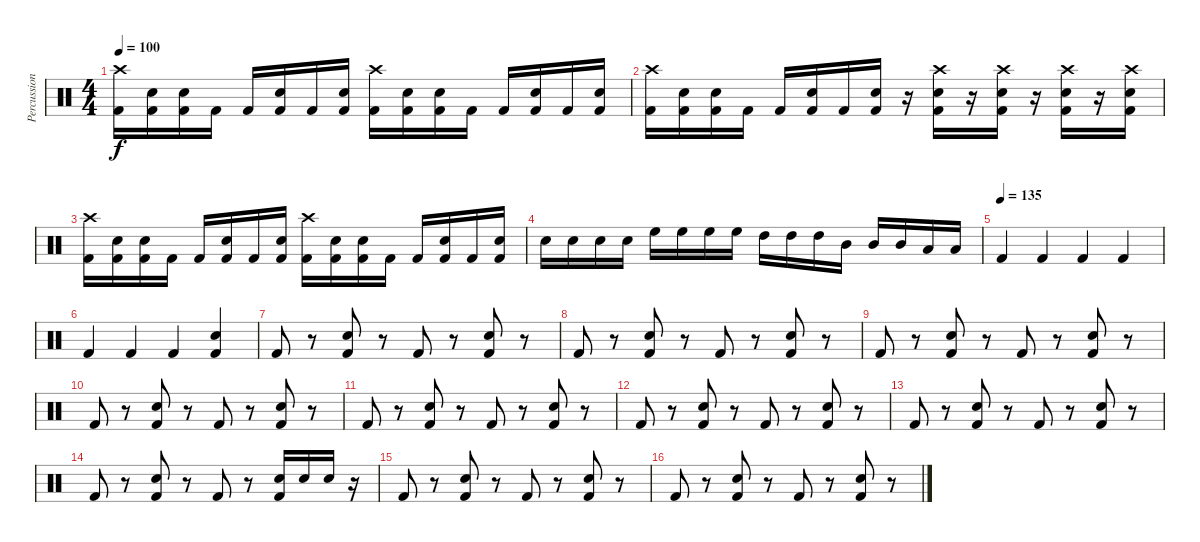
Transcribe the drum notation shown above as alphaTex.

\track ("Percussions" "Percussion") {instrument percussion}
\staff {score}
\articulation defaults
\ts (4 4)
\tempo 100
\clef neutral
\ks c
("Crash high (hit)" "Kick (hit) 2").16{dy f} ("Snare (hit) 2" "Kick (hit) 2").16 ("Snare (hit) 2" "Kick (hit) 2").16 "Kick (hit) 2".16 "Kick (hit) 2".16 ("Snare (hit) 2" "Kick (hit) 2").16 "Kick (hit) 2".16 ("Snare (hit) 2" "Kick (hit) 2").16 ("Crash high (hit)" "Kick (hit) 2").16 ("Snare (hit) 2" "Kick (hit) 2").16 ("Snare (hit) 2" "Kick (hit) 2").16 "Kick (hit) 2".16 "Kick (hit) 2".16 ("Snare (hit) 2" "Kick (hit) 2").16 "Kick (hit) 2".16 ("Snare (hit) 2" "Kick (hit) 2").16 |
("Crash high (hit)" "Kick (hit) 2").16 ("Snare (hit) 2" "Kick (hit) 2").16 ("Snare (hit) 2" "Kick (hit) 2").16 "Kick (hit) 2".16 "Kick (hit) 2".16 ("Snare (hit) 2" "Kick (hit) 2").16 "Kick (hit) 2".16 ("Snare (hit) 2" "Kick (hit) 2").16 r.16 ("Crash high (hit)" "Snare (hit) 2" "Kick (hit) 2").16 r.16 ("Crash high (hit)" "Snare (hit) 2" "Kick (hit) 2").16 r.16 ("Crash high (hit)" "Snare (hit) 2" "Kick (hit) 2").16 r.16 ("Crash high (hit)" "Snare (hit) 2" "Kick (hit) 2").16 |
("Crash high (hit)" "Kick (hit) 2").16 ("Snare (hit) 2" "Kick (hit) 2").16 ("Snare (hit) 2" "Kick (hit) 2").16 "Kick (hit) 2".16 "Kick (hit) 2".16 ("Snare (hit) 2" "Kick (hit) 2").16 "Kick (hit) 2".16 ("Snare (hit) 2" "Kick (hit) 2").16 ("Crash high (hit)" "Kick (hit) 2").16 ("Snare (hit) 2" "Kick (hit) 2").16 ("Snare (hit) 2" "Kick (hit) 2").16 "Kick (hit) 2".16 "Kick (hit) 2".16 ("Snare (hit) 2" "Kick (hit) 2").16 "Kick (hit) 2".16 ("Snare (hit) 2" "Kick (hit) 2").16 |
"Snare (hit) 2".16 "Snare (hit) 2".16 "Snare (hit) 2".16 "Snare (hit) 2".16 "High Floor Tom (hit)".16 "High Floor Tom (hit)".16 "High Floor Tom (hit)".16 "High Floor Tom (hit)".16 "High Tom (hit)".16 "High Tom (hit)".16 "High Tom (hit)".16 "Mid Tom (hit)".16 "Mid Tom (hit)".16 "Mid Tom (hit)".16 "Low Tom (hit)".16 "Low Tom (hit)".16 |
\tempo (135)
"Kick (hit) 2".4 "Kick (hit) 2".4 "Kick (hit) 2".4 "Kick (hit) 2".4 |
"Kick (hit) 2".4 "Kick (hit) 2".4 "Kick (hit) 2".4 ("Snare (hit) 2" "Kick (hit) 2").4 |
"Kick (hit) 2".8 r.8 ("Snare (hit) 2" "Kick (hit) 2").8 r.8 "Kick (hit) 2".8 r.8 ("Snare (hit) 2" "Kick (hit) 2").8 r.8 |
"Kick (hit) 2".8 r.8 ("Snare (hit) 2" "Kick (hit) 2").8 r.8 "Kick (hit) 2".8 r.8 ("Snare (hit) 2" "Kick (hit) 2").8 r.8 |
"Kick (hit) 2".8 r.8 ("Snare (hit) 2" "Kick (hit) 2").8 r.8 "Kick (hit) 2".8 r.8 ("Snare (hit) 2" "Kick (hit) 2").8 r.8 |
"Kick (hit) 2".8 r.8 ("Snare (hit) 2" "Kick (hit) 2").8 r.8 "Kick (hit) 2".8 r.8 ("Snare (hit) 2" "Kick (hit) 2").8 r.8 |
"Kick (hit) 2".8 r.8 ("Snare (hit) 2" "Kick (hit) 2").8 r.8 "Kick (hit) 2".8 r.8 ("Snare (hit) 2" "Kick (hit) 2").8 r.8 |
"Kick (hit) 2".8 r.8 ("Snare (hit) 2" "Kick (hit) 2").8 r.8 "Kick (hit) 2".8 r.8 ("Snare (hit) 2" "Kick (hit) 2").8 r.8 |
"Kick (hit) 2".8 r.8 ("Snare (hit) 2" "Kick (hit) 2").8 r.8 "Kick (hit) 2".8 r.8 ("Snare (hit) 2" "Kick (hit) 2").8 r.8 |
"Kick (hit) 2".8 r.8 ("Snare (hit) 2" "Kick (hit) 2").8 r.8 "Kick (hit) 2".8 r.8 ("Snare (hit) 2" "Kick (hit) 2").16 "Snare (hit) 2".16 "Snare (hit) 2".16 r.16 |
"Kick (hit) 2".8 r.8 ("Snare (hit) 2" "Kick (hit) 2").8 r.8 "Kick (hit) 2".8 r.8 ("Snare (hit) 2" "Kick (hit) 2").8 r.8 |
"Kick (hit) 2".8 r.8 ("Snare (hit) 2" "Kick (hit) 2").8 r.8 "Kick (hit) 2".8 r.8 ("Snare (hit) 2" "Kick (hit) 2").8 r.8
